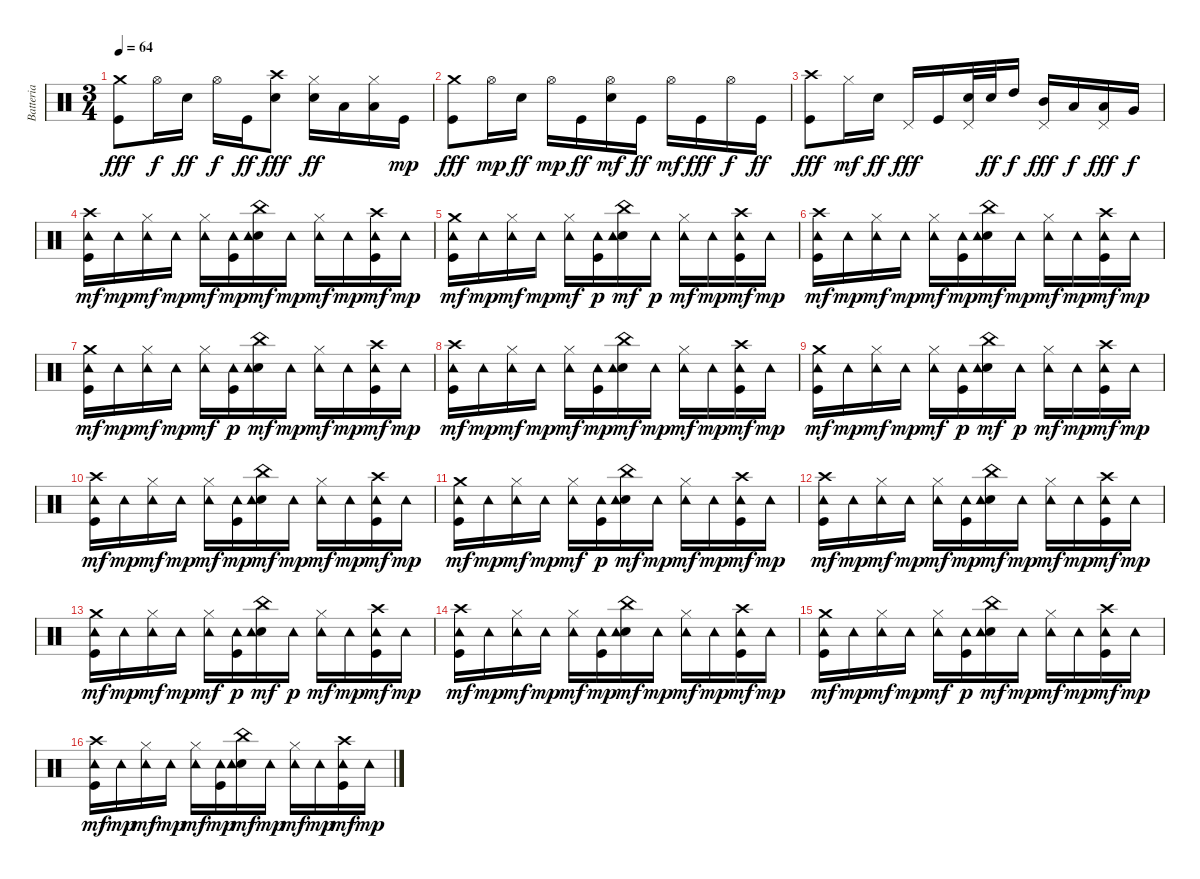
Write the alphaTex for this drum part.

\track ("Batteria" "Batteria") {instrument percussion}
\staff {score}
\articulation defaults
\ts (3 4)
\tempo 64
\clef neutral
\ks c
("Kick (hit)" "Crash medium (hit)").8{dy fff} "Hi-Hat (open)".16{dy f} "Electric Snare (hit)".16{dy ff} "Hi-Hat (open)".16{dy f} "Kick (hit)".16{dy ff} ("Electric Snare (hit)" "Crash high (hit)").8{dy fff} ("Electric Snare (hit)" "Hi-Hat (closed)").16{dy ff} "Low Tom (hit)".16 ("Hi-Hat (closed)" "Low Tom (hit)").16 "Kick (hit)".16{dy mp} |
("Kick (hit)" "Crash medium (hit)").8{dy fff} "Hi-Hat (open)".16{dy mp} "Electric Snare (hit)".16{dy ff} "Hi-Hat (open)".16{dy mp} "Kick (hit)".16{dy ff} ("Electric Snare (hit)" "Hi-Hat (open)").16{dy mf} "Kick (hit)".16{dy ff} "Hi-Hat (open)".16{dy mf} "Kick (hit)".16{dy fff} "Hi-Hat (open)".16{dy f} "Kick (hit)".16{dy ff} |
("Kick (hit)" "Crash high (hit)").8{dy fff} "Hi-Hat (closed)".16{dy mf} "Electric Snare (hit)".16{dy ff} "Pedal Hi-Hat (hit)".16{dy fff} "Kick (hit)".16 ("Electric Snare (hit)" "Pedal Hi-Hat (hit)").32 "Electric Snare (hit)".32{dy ff} "High Tom (hit)".16{dy f} ("Pedal Hi-Hat (hit)" "Mid Tom (hit)").16{dy fff} "Low Tom (hit)".16{dy f} ("Pedal Hi-Hat (hit)" "Low Tom (hit)").16{dy fff} "Very Low Tom (hit)".16{dy f} |
("Kick (hit)" "Crash high (hit)" "Tambourine (hit)").16{dy mf} "Tambourine (hit)".16{dy mp} ("Hi-Hat (closed)" "Tambourine (hit)").16{dy mf} "Tambourine (hit)".16{dy mp} ("Hi-Hat (closed)" "Tambourine (hit)").16{dy mf} ("Kick (hit)" "Tambourine (hit)").16{dy mp} ("Electric Snare (hit)" "China (hit)" "Tambourine (hit)").16{dy mf} "Tambourine (hit)".16{dy mp} ("Hi-Hat (closed)" "Tambourine (hit)").16{dy mf} "Tambourine (hit)".16{dy mp} ("Kick (hit)" "Crash high (hit)" "Tambourine (hit)").16{dy mf} "Tambourine (hit)".16{dy mp} |
("Kick (hit)" "Crash medium (hit)" "Tambourine (hit)").16{dy mf} "Tambourine (hit)".16{dy mp} ("Hi-Hat (closed)" "Tambourine (hit)").16{dy mf} "Tambourine (hit)".16{dy mp} ("Hi-Hat (closed)" "Tambourine (hit)").16{dy mf} ("Kick (hit)" "Tambourine (hit)").16{dy p} ("Electric Snare (hit)" "China (hit)" "Tambourine (hit)").16{dy mf} "Tambourine (hit)".16{dy p} ("Hi-Hat (closed)" "Tambourine (hit)").16{dy mf} "Tambourine (hit)".16{dy mp} ("Kick (hit)" "Crash high (hit)" "Tambourine (hit)").16{dy mf} "Tambourine (hit)".16{dy mp} |
("Kick (hit)" "Crash high (hit)" "Tambourine (hit)").16{dy mf} "Tambourine (hit)".16{dy mp} ("Hi-Hat (closed)" "Tambourine (hit)").16{dy mf} "Tambourine (hit)".16{dy mp} ("Hi-Hat (closed)" "Tambourine (hit)").16{dy mf} ("Kick (hit)" "Tambourine (hit)").16{dy mp} ("Electric Snare (hit)" "China (hit)" "Tambourine (hit)").16{dy mf} "Tambourine (hit)".16{dy mp} ("Hi-Hat (closed)" "Tambourine (hit)").16{dy mf} "Tambourine (hit)".16{dy mp} ("Kick (hit)" "Crash high (hit)" "Tambourine (hit)").16{dy mf} "Tambourine (hit)".16{dy mp} |
("Kick (hit)" "Crash medium (hit)" "Tambourine (hit)").16{dy mf} "Tambourine (hit)".16{dy mp} ("Hi-Hat (closed)" "Tambourine (hit)").16{dy mf} "Tambourine (hit)".16{dy mp} ("Hi-Hat (closed)" "Tambourine (hit)").16{dy mf} ("Kick (hit)" "Tambourine (hit)").16{dy p} ("Electric Snare (hit)" "China (hit)" "Tambourine (hit)").16{dy mf} "Tambourine (hit)".16{dy mp} ("Hi-Hat (closed)" "Tambourine (hit)").16{dy mf} "Tambourine (hit)".16{dy mp} ("Kick (hit)" "Crash high (hit)" "Tambourine (hit)").16{dy mf} "Tambourine (hit)".16{dy mp} |
("Kick (hit)" "Crash high (hit)" "Tambourine (hit)").16{dy mf} "Tambourine (hit)".16{dy mp} ("Hi-Hat (closed)" "Tambourine (hit)").16{dy mf} "Tambourine (hit)".16{dy mp} ("Hi-Hat (closed)" "Tambourine (hit)").16{dy mf} ("Kick (hit)" "Tambourine (hit)").16{dy mp} ("Electric Snare (hit)" "China (hit)" "Tambourine (hit)").16{dy mf} "Tambourine (hit)".16{dy mp} ("Hi-Hat (closed)" "Tambourine (hit)").16{dy mf} "Tambourine (hit)".16{dy mp} ("Kick (hit)" "Crash high (hit)" "Tambourine (hit)").16{dy mf} "Tambourine (hit)".16{dy mp} |
("Kick (hit)" "Crash medium (hit)" "Tambourine (hit)").16{dy mf} "Tambourine (hit)".16{dy mp} ("Hi-Hat (closed)" "Tambourine (hit)").16{dy mf} "Tambourine (hit)".16{dy mp} ("Hi-Hat (closed)" "Tambourine (hit)").16{dy mf} ("Kick (hit)" "Tambourine (hit)").16{dy p} ("Electric Snare (hit)" "China (hit)" "Tambourine (hit)").16{dy mf} "Tambourine (hit)".16{dy p} ("Hi-Hat (closed)" "Tambourine (hit)").16{dy mf} "Tambourine (hit)".16{dy mp} ("Kick (hit)" "Crash high (hit)" "Tambourine (hit)").16{dy mf} "Tambourine (hit)".16{dy mp} |
("Kick (hit)" "Crash high (hit)" "Tambourine (hit)").16{dy mf} "Tambourine (hit)".16{dy mp} ("Hi-Hat (closed)" "Tambourine (hit)").16{dy mf} "Tambourine (hit)".16{dy mp} ("Hi-Hat (closed)" "Tambourine (hit)").16{dy mf} ("Kick (hit)" "Tambourine (hit)").16{dy mp} ("Electric Snare (hit)" "China (hit)" "Tambourine (hit)").16{dy mf} "Tambourine (hit)".16{dy mp} ("Hi-Hat (closed)" "Tambourine (hit)").16{dy mf} "Tambourine (hit)".16{dy mp} ("Kick (hit)" "Crash high (hit)" "Tambourine (hit)").16{dy mf} "Tambourine (hit)".16{dy mp} |
("Kick (hit)" "Crash medium (hit)" "Tambourine (hit)").16{dy mf} "Tambourine (hit)".16{dy mp} ("Hi-Hat (closed)" "Tambourine (hit)").16{dy mf} "Tambourine (hit)".16{dy mp} ("Hi-Hat (closed)" "Tambourine (hit)").16{dy mf} ("Kick (hit)" "Tambourine (hit)").16{dy p} ("Electric Snare (hit)" "China (hit)" "Tambourine (hit)").16{dy mf} "Tambourine (hit)".16{dy mp} ("Hi-Hat (closed)" "Tambourine (hit)").16{dy mf} "Tambourine (hit)".16{dy mp} ("Kick (hit)" "Crash high (hit)" "Tambourine (hit)").16{dy mf} "Tambourine (hit)".16{dy mp} |
("Kick (hit)" "Crash high (hit)" "Tambourine (hit)").16{dy mf} "Tambourine (hit)".16{dy mp} ("Hi-Hat (closed)" "Tambourine (hit)").16{dy mf} "Tambourine (hit)".16{dy mp} ("Hi-Hat (closed)" "Tambourine (hit)").16{dy mf} ("Kick (hit)" "Tambourine (hit)").16{dy mp} ("Electric Snare (hit)" "China (hit)" "Tambourine (hit)").16{dy mf} "Tambourine (hit)".16{dy mp} ("Hi-Hat (closed)" "Tambourine (hit)").16{dy mf} "Tambourine (hit)".16{dy mp} ("Kick (hit)" "Crash high (hit)" "Tambourine (hit)").16{dy mf} "Tambourine (hit)".16{dy mp} |
("Kick (hit)" "Crash medium (hit)" "Tambourine (hit)").16{dy mf} "Tambourine (hit)".16{dy mp} ("Hi-Hat (closed)" "Tambourine (hit)").16{dy mf} "Tambourine (hit)".16{dy mp} ("Hi-Hat (closed)" "Tambourine (hit)").16{dy mf} ("Kick (hit)" "Tambourine (hit)").16{dy p} ("Electric Snare (hit)" "China (hit)" "Tambourine (hit)").16{dy mf} "Tambourine (hit)".16{dy p} ("Hi-Hat (closed)" "Tambourine (hit)").16{dy mf} "Tambourine (hit)".16{dy mp} ("Kick (hit)" "Crash high (hit)" "Tambourine (hit)").16{dy mf} "Tambourine (hit)".16{dy mp} |
("Kick (hit)" "Crash high (hit)" "Tambourine (hit)").16{dy mf} "Tambourine (hit)".16{dy mp} ("Hi-Hat (closed)" "Tambourine (hit)").16{dy mf} "Tambourine (hit)".16{dy mp} ("Hi-Hat (closed)" "Tambourine (hit)").16{dy mf} ("Kick (hit)" "Tambourine (hit)").16{dy mp} ("Electric Snare (hit)" "China (hit)" "Tambourine (hit)").16{dy mf} "Tambourine (hit)".16{dy mp} ("Hi-Hat (closed)" "Tambourine (hit)").16{dy mf} "Tambourine (hit)".16{dy mp} ("Kick (hit)" "Crash high (hit)" "Tambourine (hit)").16{dy mf} "Tambourine (hit)".16{dy mp} |
("Kick (hit)" "Crash medium (hit)" "Tambourine (hit)").16{dy mf} "Tambourine (hit)".16{dy mp} ("Hi-Hat (closed)" "Tambourine (hit)").16{dy mf} "Tambourine (hit)".16{dy mp} ("Hi-Hat (closed)" "Tambourine (hit)").16{dy mf} ("Kick (hit)" "Tambourine (hit)").16{dy p} ("Electric Snare (hit)" "China (hit)" "Tambourine (hit)").16{dy mf} "Tambourine (hit)".16{dy mp} ("Hi-Hat (closed)" "Tambourine (hit)").16{dy mf} "Tambourine (hit)".16{dy mp} ("Kick (hit)" "Crash high (hit)" "Tambourine (hit)").16{dy mf} "Tambourine (hit)".16{dy mp} |
("Kick (hit)" "Crash high (hit)" "Tambourine (hit)").16{dy mf} "Tambourine (hit)".16{dy mp} ("Hi-Hat (closed)" "Tambourine (hit)").16{dy mf} "Tambourine (hit)".16{dy mp} ("Hi-Hat (closed)" "Tambourine (hit)").16{dy mf} ("Kick (hit)" "Tambourine (hit)").16{dy mp} ("Electric Snare (hit)" "China (hit)" "Tambourine (hit)").16{dy mf} "Tambourine (hit)".16{dy mp} ("Hi-Hat (closed)" "Tambourine (hit)").16{dy mf} "Tambourine (hit)".16{dy mp} ("Kick (hit)" "Crash high (hit)" "Tambourine (hit)").16{dy mf} "Tambourine (hit)".16{dy mp}
